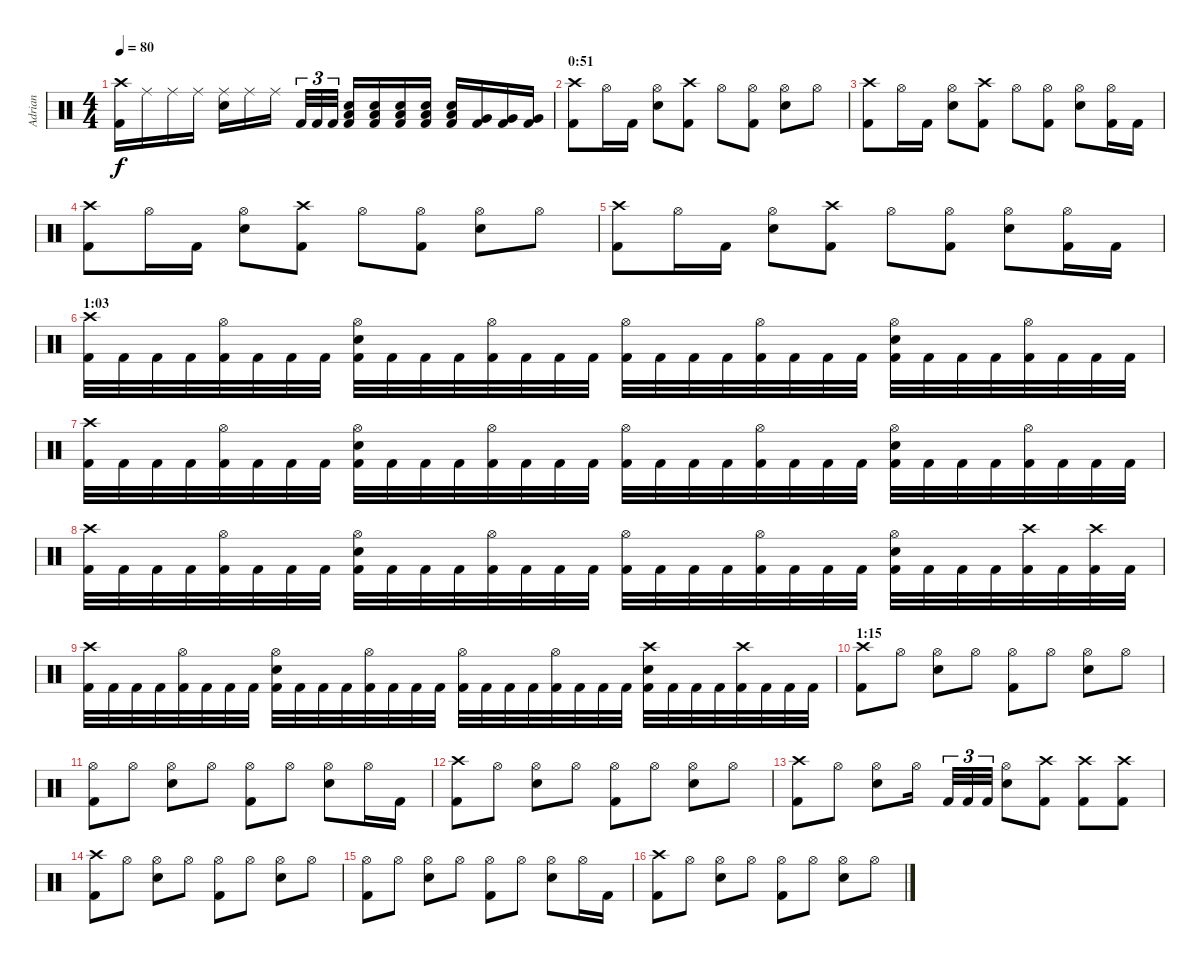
\track ("Adrian" "Adrian") {instrument percussion}
\staff {score}
\articulation defaults
\ts (4 4)
\tempo 80
\clef neutral
\ks c
("Kick (hit) 2" "Crash high (hit)").16{dy f} "Ride (middle)".16 "Ride (middle)".16 "Ride (middle)".16 ("Snare (hit) 2" "Ride (middle)").16 "Ride (middle)".16 "Ride (middle)".16 "Kick (hit) 2".32{tu (3 2)} "Kick (hit) 2".32{tu (3 2)} "Kick (hit) 2".32{tu (3 2)} ("Kick (hit) 2" "Snare (hit) 2" "Low Tom (hit)").16 ("Kick (hit) 2" "Snare (hit) 2" "Low Tom (hit)").16 ("Kick (hit) 2" "Snare (hit) 2" "Low Tom (hit)").16 ("Kick (hit) 2" "Snare (hit) 2" "Low Tom (hit)").16 ("Kick (hit) 2" "Snare (hit) 2" "Low Tom (hit)").16 ("Kick (hit) 2" "Very Low Tom (hit)").16 ("Kick (hit) 2" "Very Low Tom (hit)").16 ("Kick (hit) 2" "Very Low Tom (hit)").16 |
\section ("" "0:51")
("Kick (hit) 2" "Crash high (hit)").8 "Hi-Hat (open)".16 "Kick (hit) 2".16 ("Snare (hit) 2" "Hi-Hat (open)").8 ("Kick (hit) 2" "Crash high (hit)").8 "Hi-Hat (open)".8 ("Kick (hit) 2" "Hi-Hat (open)").8 ("Snare (hit) 2" "Hi-Hat (open)").8 "Hi-Hat (open)".8 |
("Kick (hit) 2" "Crash high (hit)").8 "Hi-Hat (open)".16 "Kick (hit) 2".16 ("Snare (hit) 2" "Hi-Hat (open)").8 ("Kick (hit) 2" "Crash high (hit)").8 "Hi-Hat (open)".8 ("Kick (hit) 2" "Hi-Hat (open)").8 ("Snare (hit) 2" "Hi-Hat (open)").8 ("Kick (hit) 2" "Hi-Hat (open)").16 "Kick (hit) 2".16 |
("Kick (hit) 2" "Crash high (hit)").8 "Hi-Hat (open)".16 "Kick (hit) 2".16 ("Snare (hit) 2" "Hi-Hat (open)").8 ("Kick (hit) 2" "Crash high (hit)").8 "Hi-Hat (open)".8 ("Kick (hit) 2" "Hi-Hat (open)").8 ("Snare (hit) 2" "Hi-Hat (open)").8 "Hi-Hat (open)".8 |
("Kick (hit) 2" "Crash high (hit)").8 "Hi-Hat (open)".16 "Kick (hit) 2".16 ("Snare (hit) 2" "Hi-Hat (open)").8 ("Kick (hit) 2" "Crash high (hit)").8 "Hi-Hat (open)".8 ("Kick (hit) 2" "Hi-Hat (open)").8 ("Snare (hit) 2" "Hi-Hat (open)").8 ("Kick (hit) 2" "Hi-Hat (open)").16 "Kick (hit) 2".16 |
\section ("" "1:03")
("Kick (hit) 2" "Crash high (hit)").32 "Kick (hit) 2".32 "Kick (hit) 2".32 "Kick (hit) 2".32 ("Kick (hit) 2" "Hi-Hat (open)").32 "Kick (hit) 2".32 "Kick (hit) 2".32 "Kick (hit) 2".32 ("Kick (hit) 2" "Snare (hit) 2" "Hi-Hat (open)").32 "Kick (hit) 2".32 "Kick (hit) 2".32 "Kick (hit) 2".32 ("Kick (hit) 2" "Hi-Hat (open)").32 "Kick (hit) 2".32 "Kick (hit) 2".32 "Kick (hit) 2".32 ("Kick (hit) 2" "Hi-Hat (open)").32 "Kick (hit) 2".32 "Kick (hit) 2".32 "Kick (hit) 2".32 ("Kick (hit) 2" "Hi-Hat (open)").32 "Kick (hit) 2".32 "Kick (hit) 2".32 "Kick (hit) 2".32 ("Kick (hit) 2" "Snare (hit) 2" "Hi-Hat (open)").32 "Kick (hit) 2".32 "Kick (hit) 2".32 "Kick (hit) 2".32 ("Kick (hit) 2" "Hi-Hat (open)").32 "Kick (hit) 2".32 "Kick (hit) 2".32 "Kick (hit) 2".32 |
("Kick (hit) 2" "Crash high (hit)").32 "Kick (hit) 2".32 "Kick (hit) 2".32 "Kick (hit) 2".32 ("Kick (hit) 2" "Hi-Hat (open)").32 "Kick (hit) 2".32 "Kick (hit) 2".32 "Kick (hit) 2".32 ("Kick (hit) 2" "Snare (hit) 2" "Hi-Hat (open)").32 "Kick (hit) 2".32 "Kick (hit) 2".32 "Kick (hit) 2".32 ("Kick (hit) 2" "Hi-Hat (open)").32 "Kick (hit) 2".32 "Kick (hit) 2".32 "Kick (hit) 2".32 ("Kick (hit) 2" "Hi-Hat (open)").32 "Kick (hit) 2".32 "Kick (hit) 2".32 "Kick (hit) 2".32 ("Kick (hit) 2" "Hi-Hat (open)").32 "Kick (hit) 2".32 "Kick (hit) 2".32 "Kick (hit) 2".32 ("Kick (hit) 2" "Snare (hit) 2" "Hi-Hat (open)").32 "Kick (hit) 2".32 "Kick (hit) 2".32 "Kick (hit) 2".32 ("Kick (hit) 2" "Hi-Hat (open)").32 "Kick (hit) 2".32 "Kick (hit) 2".32 "Kick (hit) 2".32 |
("Kick (hit) 2" "Crash high (hit)").32 "Kick (hit) 2".32 "Kick (hit) 2".32 "Kick (hit) 2".32 ("Kick (hit) 2" "Hi-Hat (open)").32 "Kick (hit) 2".32 "Kick (hit) 2".32 "Kick (hit) 2".32 ("Kick (hit) 2" "Snare (hit) 2" "Hi-Hat (open)").32 "Kick (hit) 2".32 "Kick (hit) 2".32 "Kick (hit) 2".32 ("Kick (hit) 2" "Hi-Hat (open)").32 "Kick (hit) 2".32 "Kick (hit) 2".32 "Kick (hit) 2".32 ("Kick (hit) 2" "Hi-Hat (open)").32 "Kick (hit) 2".32 "Kick (hit) 2".32 "Kick (hit) 2".32 ("Kick (hit) 2" "Hi-Hat (open)").32 "Kick (hit) 2".32 "Kick (hit) 2".32 "Kick (hit) 2".32 ("Kick (hit) 2" "Snare (hit) 2" "Hi-Hat (open)").32 "Kick (hit) 2".32 "Kick (hit) 2".32 "Kick (hit) 2".32 ("Kick (hit) 2" "Crash high (hit)").32 "Kick (hit) 2".32 ("Kick (hit) 2" "Crash high (hit)").32 "Kick (hit) 2".32 |
("Kick (hit) 2" "Crash high (hit)").32 "Kick (hit) 2".32 "Kick (hit) 2".32 "Kick (hit) 2".32 ("Kick (hit) 2" "Hi-Hat (open)").32 "Kick (hit) 2".32 "Kick (hit) 2".32 "Kick (hit) 2".32 ("Kick (hit) 2" "Snare (hit) 2" "Hi-Hat (open)").32 "Kick (hit) 2".32 "Kick (hit) 2".32 "Kick (hit) 2".32 ("Kick (hit) 2" "Hi-Hat (open)").32 "Kick (hit) 2".32 "Kick (hit) 2".32 "Kick (hit) 2".32 ("Kick (hit) 2" "Hi-Hat (open)").32 "Kick (hit) 2".32 "Kick (hit) 2".32 "Kick (hit) 2".32 ("Kick (hit) 2" "Hi-Hat (open)").32 "Kick (hit) 2".32 "Kick (hit) 2".32 "Kick (hit) 2".32 ("Kick (hit) 2" "Snare (hit) 2" "Crash high (hit)").32 "Kick (hit) 2".32 "Kick (hit) 2".32 "Kick (hit) 2".32 ("Kick (hit) 2" "Crash high (hit)").32 "Kick (hit) 2".32 "Kick (hit) 2".32 "Kick (hit) 2".32 |
\section ("" "1:15")
("Kick (hit) 2" "Crash high (hit)").8 "Hi-Hat (open)".8 ("Snare (hit) 2" "Hi-Hat (open)").8 "Hi-Hat (open)".8 ("Kick (hit) 2" "Hi-Hat (open)").8 "Hi-Hat (open)".8 ("Snare (hit) 2" "Hi-Hat (open)").8 "Hi-Hat (open)".8 |
("Kick (hit) 2" "Hi-Hat (open)").8 "Hi-Hat (open)".8 ("Snare (hit) 2" "Hi-Hat (open)").8 "Hi-Hat (open)".8 ("Kick (hit) 2" "Hi-Hat (open)").8 "Hi-Hat (open)".8 ("Snare (hit) 2" "Hi-Hat (open)").8 "Hi-Hat (open)".16 "Kick (hit) 2".16 |
("Kick (hit) 2" "Crash high (hit)").8 "Hi-Hat (open)".8 ("Snare (hit) 2" "Hi-Hat (open)").8 "Hi-Hat (open)".8 ("Kick (hit) 2" "Hi-Hat (open)").8 "Hi-Hat (open)".8 ("Snare (hit) 2" "Hi-Hat (open)").8 "Hi-Hat (open)".8 |
("Kick (hit) 2" "Crash high (hit)").8 "Hi-Hat (open)".8 ("Snare (hit) 2" "Hi-Hat (open)").8 "Hi-Hat (open)".16 "Kick (hit) 2".32{tu (3 2)} "Kick (hit) 2".32{tu (3 2)} "Kick (hit) 2".32{tu (3 2)} ("Snare (hit) 2" "Hi-Hat (open)").8 ("Kick (hit) 2" "Crash high (hit)").8 ("Kick (hit) 2" "Crash high (hit)").8 ("Kick (hit) 2" "Crash high (hit)").8 |
("Kick (hit) 2" "Crash high (hit)").8 "Hi-Hat (open)".8 ("Snare (hit) 2" "Hi-Hat (open)").8 "Hi-Hat (open)".8 ("Kick (hit) 2" "Hi-Hat (open)").8 "Hi-Hat (open)".8 ("Snare (hit) 2" "Hi-Hat (open)").8 "Hi-Hat (open)".8 |
("Kick (hit) 2" "Hi-Hat (open)").8 "Hi-Hat (open)".8 ("Snare (hit) 2" "Hi-Hat (open)").8 "Hi-Hat (open)".8 ("Kick (hit) 2" "Hi-Hat (open)").8 "Hi-Hat (open)".8 ("Snare (hit) 2" "Hi-Hat (open)").8 "Hi-Hat (open)".16 "Kick (hit) 2".16 |
("Kick (hit) 2" "Crash high (hit)").8 "Hi-Hat (open)".8 ("Snare (hit) 2" "Hi-Hat (open)").8 "Hi-Hat (open)".8 ("Kick (hit) 2" "Hi-Hat (open)").8 "Hi-Hat (open)".8 ("Snare (hit) 2" "Hi-Hat (open)").8 "Hi-Hat (open)".8
